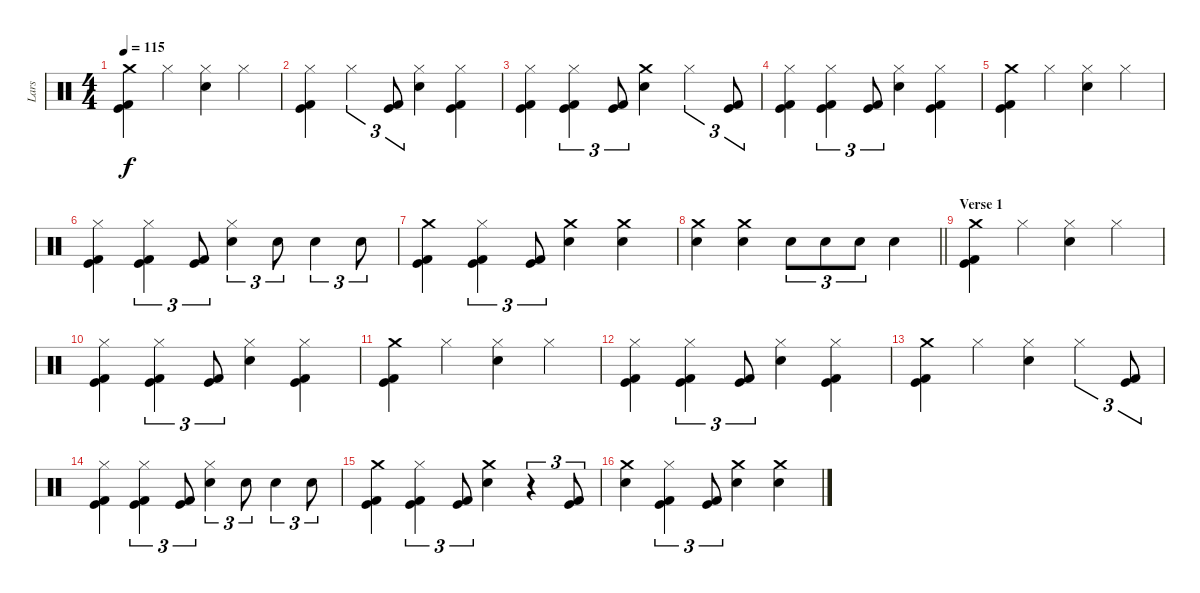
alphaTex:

\track ("Lars" "Lars") {instrument percussion}
\staff {score}
\articulation defaults
\ts (4 4)
\tempo 115
\clef neutral
\ks c
("Crash medium (hit)" "Kick (hit)" "Kick (hit) 2").4{dy f} "Hi-Hat (closed)".4 ("Hi-Hat (closed)" "Electric Snare (hit)").4 "Hi-Hat (closed)".4 |
("Hi-Hat (closed)" "Kick (hit)" "Kick (hit) 2").4 "Hi-Hat (closed)".4{tu (3 2)} ("Kick (hit)" "Kick (hit) 2").8{tu (3 2)} ("Hi-Hat (closed)" "Electric Snare (hit)").4 ("Hi-Hat (closed)" "Kick (hit)" "Kick (hit) 2").4 |
("Hi-Hat (closed)" "Kick (hit)" "Kick (hit) 2").4 ("Hi-Hat (closed)" "Kick (hit)" "Kick (hit) 2").4{tu (3 2)} ("Kick (hit)" "Kick (hit) 2").8{tu (3 2)} ("Crash medium (hit)" "Electric Snare (hit)").4 "Hi-Hat (closed)".4{tu (3 2)} ("Kick (hit)" "Kick (hit) 2").8{tu (3 2)} |
("Hi-Hat (closed)" "Kick (hit)" "Kick (hit) 2").4 ("Hi-Hat (closed)" "Kick (hit)" "Kick (hit) 2").4{tu (3 2)} ("Kick (hit)" "Kick (hit) 2").8{tu (3 2)} ("Hi-Hat (closed)" "Electric Snare (hit)").4 ("Hi-Hat (closed)" "Kick (hit)" "Kick (hit) 2").4 |
("Crash medium (hit)" "Kick (hit)" "Kick (hit) 2").4 "Hi-Hat (closed)".4 ("Hi-Hat (closed)" "Electric Snare (hit)").4 "Hi-Hat (closed)".4 |
("Hi-Hat (closed)" "Kick (hit)" "Kick (hit) 2").4 ("Hi-Hat (closed)" "Kick (hit)" "Kick (hit) 2").4{tu (3 2)} ("Kick (hit)" "Kick (hit) 2").8{tu (3 2)} ("Hi-Hat (closed)" "Electric Snare (hit)").4{tu (3 2)} "Electric Snare (hit)".8{tu (3 2)} "Electric Snare (hit)".4{tu (3 2)} "Electric Snare (hit)".8{tu (3 2)} |
("Crash medium (hit)" "Kick (hit)" "Kick (hit) 2").4 ("Hi-Hat (closed)" "Kick (hit)" "Kick (hit) 2").4{tu (3 2)} ("Kick (hit)" "Kick (hit) 2").8{tu (3 2)} ("Crash medium (hit)" "Electric Snare (hit)").4 ("Crash medium (hit)" "Electric Snare (hit)").4 |
\barLineRight lightlight
("Crash medium (hit)" "Electric Snare (hit)").4 ("Crash medium (hit)" "Electric Snare (hit)").4 "Electric Snare (hit)".8{tu (3 2)} "Electric Snare (hit)".8{tu (3 2)} "Electric Snare (hit)".8{tu (3 2)} "Electric Snare (hit)".4 |
\section ("" "Verse 1")
("Crash medium (hit)" "Kick (hit)" "Kick (hit) 2").4 "Hi-Hat (closed)".4 ("Hi-Hat (closed)" "Electric Snare (hit)").4 "Hi-Hat (closed)".4 |
("Hi-Hat (closed)" "Kick (hit)" "Kick (hit) 2").4 ("Hi-Hat (closed)" "Kick (hit)" "Kick (hit) 2").4{tu (3 2)} ("Kick (hit)" "Kick (hit) 2").8{tu (3 2)} ("Hi-Hat (closed)" "Electric Snare (hit)").4 ("Hi-Hat (closed)" "Kick (hit)" "Kick (hit) 2").4 |
("Crash medium (hit)" "Kick (hit)" "Kick (hit) 2").4 "Hi-Hat (closed)".4 ("Hi-Hat (closed)" "Electric Snare (hit)").4 "Hi-Hat (closed)".4 |
("Hi-Hat (closed)" "Kick (hit)" "Kick (hit) 2").4 ("Hi-Hat (closed)" "Kick (hit)" "Kick (hit) 2").4{tu (3 2)} ("Kick (hit)" "Kick (hit) 2").8{tu (3 2)} ("Hi-Hat (closed)" "Electric Snare (hit)").4 ("Hi-Hat (closed)" "Kick (hit)" "Kick (hit) 2").4 |
("Crash medium (hit)" "Kick (hit)" "Kick (hit) 2").4 "Hi-Hat (closed)".4 ("Hi-Hat (closed)" "Electric Snare (hit)").4 "Hi-Hat (closed)".4{tu (3 2)} ("Kick (hit)" "Kick (hit) 2").8{tu (3 2)} |
("Hi-Hat (closed)" "Kick (hit)" "Kick (hit) 2").4 ("Hi-Hat (closed)" "Kick (hit)" "Kick (hit) 2").4{tu (3 2)} ("Kick (hit)" "Kick (hit) 2").8{tu (3 2)} ("Hi-Hat (closed)" "Electric Snare (hit)").4{tu (3 2)} "Electric Snare (hit)".8{tu (3 2)} "Electric Snare (hit)".4{tu (3 2)} "Electric Snare (hit)".8{tu (3 2)} |
("Crash medium (hit)" "Kick (hit)" "Kick (hit) 2").4 ("Hi-Hat (closed)" "Kick (hit)" "Kick (hit) 2").4{tu (3 2)} ("Kick (hit)" "Kick (hit) 2").8{tu (3 2)} ("Crash medium (hit)" "Electric Snare (hit)").4 r.4{tu (3 2)} ("Kick (hit)" "Kick (hit) 2").8{tu (3 2)} |
("Crash medium (hit)" "Electric Snare (hit)").4 ("Hi-Hat (closed)" "Kick (hit)" "Kick (hit) 2").4{tu (3 2)} ("Kick (hit)" "Kick (hit) 2").8{tu (3 2)} ("Crash medium (hit)" "Electric Snare (hit)").4 ("Crash medium (hit)" "Electric Snare (hit)").4
